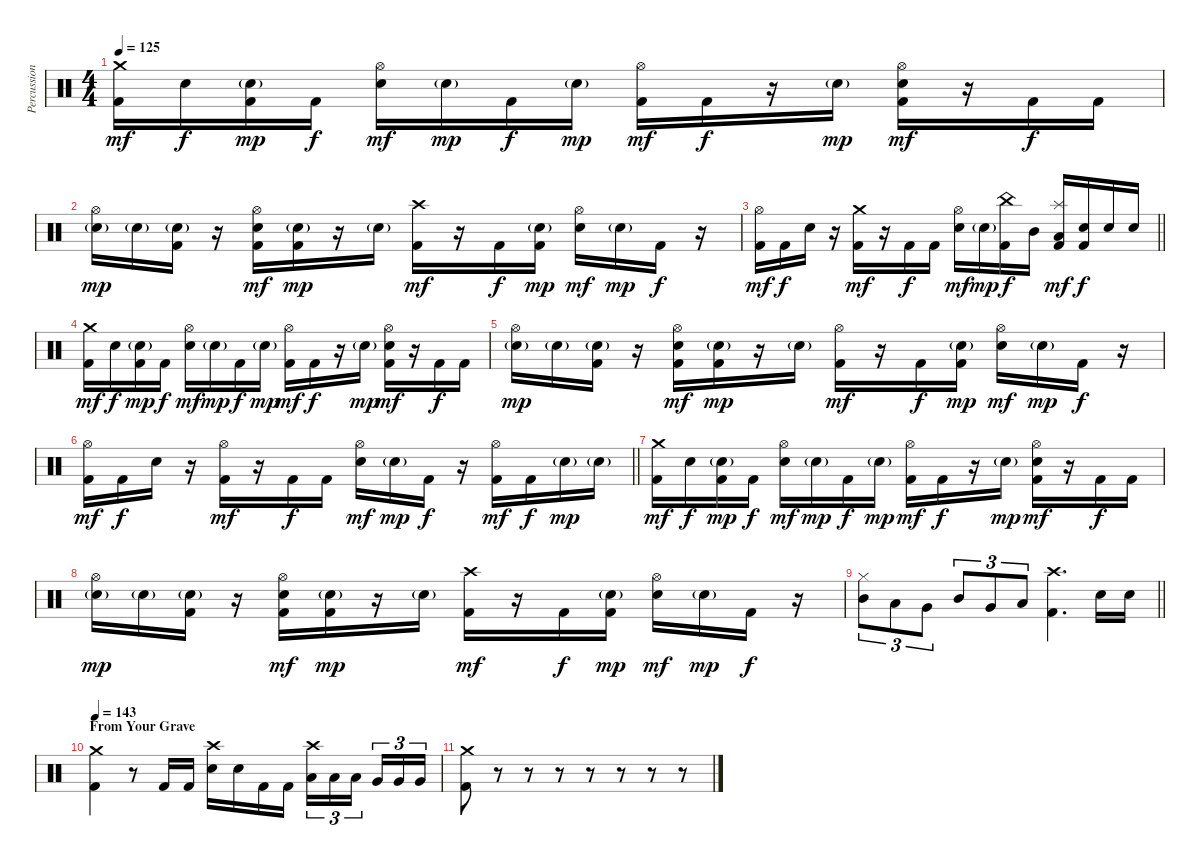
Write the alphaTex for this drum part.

\track ("Percussion" "Percussion") {instrument percussion}
\staff {score}
\articulation defaults
\ts (4 4)
\tempo 125
\clef neutral
\ks c
("Crash medium (hit)" "Kick (hit) 2").16{dy mf} "Electric Snare (hit)".16{dy f} ("Electric Snare (hit)"{g} "Kick (hit) 2").16{dy mp} "Kick (hit) 2".16{dy f} ("Hi-Hat (open)" "Electric Snare (hit)").16{dy mf} "Electric Snare (hit)"{g}.16{dy mp} "Kick (hit) 2".16{dy f} "Electric Snare (hit)"{g}.16{dy mp} ("Hi-Hat (open)" "Kick (hit) 2").16{dy mf} "Kick (hit) 2".16{dy f} r.16 "Electric Snare (hit)"{g}.16{dy mp} ("Hi-Hat (open)" "Electric Snare (hit)" "Kick (hit) 2").16{dy mf} r.16 "Kick (hit) 2".16{dy f} "Kick (hit) 2".16 |
("Hi-Hat (open)" "Electric Snare (hit)"{g}).16{dy mp} "Electric Snare (hit)"{g}.16 ("Electric Snare (hit)"{g} "Kick (hit) 2").16 r.16 ("Hi-Hat (open)" "Electric Snare (hit)" "Kick (hit) 2").16{dy mf} ("Electric Snare (hit)"{g} "Kick (hit) 2").16{dy mp} r.16 "Electric Snare (hit)"{g}.16 ("Crash high (hit)" "Kick (hit) 2").16{dy mf} r.16 "Kick (hit) 2".16{dy f} ("Electric Snare (hit)"{g} "Kick (hit) 2").16{dy mp} ("Hi-Hat (open)" "Electric Snare (hit)").16{dy mf} "Electric Snare (hit)"{g}.16{dy mp} "Kick (hit) 2".16{dy f} r.16 |
\barLineRight lightlight
("Hi-Hat (open)" "Kick (hit) 2").16{dy mf} "Kick (hit) 2".16{dy f} "Electric Snare (hit)".16 r.16 ("Crash medium (hit)" "Kick (hit) 2").16{dy mf} r.16 "Kick (hit) 2".16{dy f} "Kick (hit) 2".16 ("Hi-Hat (open)" "Electric Snare (hit)").16{dy mf} "Electric Snare (hit)"{g}.16{dy mp} ("China (hit)" "Kick (hit) 2").16{dy f} "Mid Tom (hit)".16 ("Splash (hit)" "Low Tom (hit)" "Kick (hit) 2").16{dy mf} ("Electric Snare (hit)" "Kick (hit) 2").16{dy f} "Electric Snare (hit)".16 "Electric Snare (hit)".16 |
("Crash medium (hit)" "Kick (hit) 2").16{dy mf} "Electric Snare (hit)".16{dy f} ("Electric Snare (hit)"{g} "Kick (hit) 2").16{dy mp} "Kick (hit) 2".16{dy f} ("Hi-Hat (open)" "Electric Snare (hit)").16{dy mf} "Electric Snare (hit)"{g}.16{dy mp} "Kick (hit) 2".16{dy f} "Electric Snare (hit)"{g}.16{dy mp} ("Hi-Hat (open)" "Kick (hit) 2").16{dy mf} "Kick (hit) 2".16{dy f} r.16 "Electric Snare (hit)"{g}.16{dy mp} ("Hi-Hat (open)" "Electric Snare (hit)" "Kick (hit) 2").16{dy mf} r.16 "Kick (hit) 2".16{dy f} "Kick (hit) 2".16 |
("Hi-Hat (open)" "Electric Snare (hit)"{g}).16{dy mp} "Electric Snare (hit)"{g}.16 ("Electric Snare (hit)"{g} "Kick (hit) 2").16 r.16 ("Hi-Hat (open)" "Electric Snare (hit)" "Kick (hit) 2").16{dy mf} ("Electric Snare (hit)"{g} "Kick (hit) 2").16{dy mp} r.16 "Electric Snare (hit)"{g}.16 ("Hi-Hat (open)" "Kick (hit) 2").16{dy mf} r.16 "Kick (hit) 2".16{dy f} ("Electric Snare (hit)"{g} "Kick (hit) 2").16{dy mp} ("Hi-Hat (open)" "Electric Snare (hit)").16{dy mf} "Electric Snare (hit)"{g}.16{dy mp} "Kick (hit) 2".16{dy f} r.16 |
\barLineRight lightlight
("Hi-Hat (open)" "Kick (hit) 2").16{dy mf} "Kick (hit) 2".16{dy f} "Electric Snare (hit)".16 r.16 ("Hi-Hat (open)" "Kick (hit) 2").16{dy mf} r.16 "Kick (hit) 2".16{dy f} "Kick (hit) 2".16 ("Hi-Hat (open)" "Electric Snare (hit)").16{dy mf} "Electric Snare (hit)"{g}.16{dy mp} "Kick (hit) 2".16{dy f} r.16 ("Hi-Hat (open)" "Kick (hit) 2").16{dy mf} "Kick (hit) 2".16{dy f} "Electric Snare (hit)"{g}.16{dy mp} "Electric Snare (hit)"{g}.16 |
("Crash medium (hit)" "Kick (hit) 2").16{dy mf} "Electric Snare (hit)".16{dy f} ("Electric Snare (hit)"{g} "Kick (hit) 2").16{dy mp} "Kick (hit) 2".16{dy f} ("Hi-Hat (open)" "Electric Snare (hit)").16{dy mf} "Electric Snare (hit)"{g}.16{dy mp} "Kick (hit) 2".16{dy f} "Electric Snare (hit)"{g}.16{dy mp} ("Hi-Hat (open)" "Kick (hit) 2").16{dy mf} "Kick (hit) 2".16{dy f} r.16 "Electric Snare (hit)"{g}.16{dy mp} ("Hi-Hat (open)" "Electric Snare (hit)" "Kick (hit) 2").16{dy mf} r.16 "Kick (hit) 2".16{dy f} "Kick (hit) 2".16 |
("Hi-Hat (open)" "Electric Snare (hit)"{g}).16{dy mp} "Electric Snare (hit)"{g}.16 ("Electric Snare (hit)"{g} "Kick (hit) 2").16 r.16 ("Hi-Hat (open)" "Electric Snare (hit)" "Kick (hit) 2").16{dy mf} ("Electric Snare (hit)"{g} "Kick (hit) 2").16{dy mp} r.16 "Electric Snare (hit)"{g}.16 ("Crash high (hit)" "Kick (hit) 2").16{dy mf} r.16 "Kick (hit) 2".16{dy f} ("Electric Snare (hit)"{g} "Kick (hit) 2").16{dy mp} ("Hi-Hat (open)" "Electric Snare (hit)").16{dy mf} "Electric Snare (hit)"{g}.16{dy mp} "Kick (hit) 2".16{dy f} r.16 |
\barLineRight lightlight
("Hi-Hat (closed)" "Mid Tom (hit)").8{tu (3 2)} "Low Tom (hit)".8{tu (3 2)} "Very Low Tom (hit)".8{tu (3 2)} "Mid Tom (hit)".8{tu (3 2)} "Very Low Tom (hit)".8{tu (3 2)} "Low Floor Tom (hit)".8{tu (3 2)} ("Crash high (hit)" "Kick (hit) 2").4{d} "Electric Snare (hit)".16 "Electric Snare (hit)".16 |
\section ("" "From Your Grave")
\tempo 143
("Crash medium (hit)" "Kick (hit) 2").4 r.8 "Kick (hit) 2".16 "Kick (hit) 2".16 ("Crash high (hit)" "Snare (hit) 2").16 "Snare (hit) 2".16 "Kick (hit) 2".16 "Kick (hit) 2".16 ("Crash high (hit)" "Low Tom (hit)").16{tu (3 2)} "Low Tom (hit)".16{tu (3 2)} "Low Tom (hit)".16{tu (3 2) beam splitsecondary} "Very Low Tom (hit)".16{tu (3 2)} "Very Low Tom (hit)".16{tu (3 2)} "Very Low Tom (hit)".16{tu (3 2)} |
("Crash medium (hit)" "Kick (hit) 2").8 r.8 r.8 r.8 r.8 r.8 r.8 r.8
